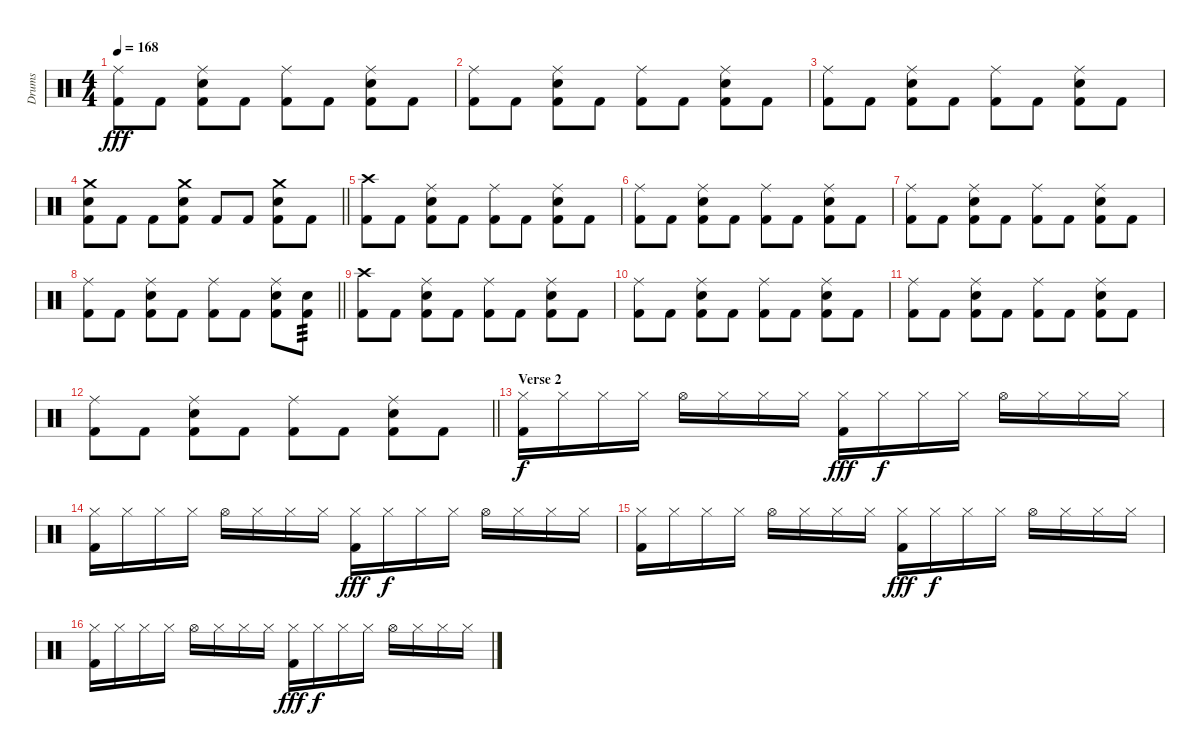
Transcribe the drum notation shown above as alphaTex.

\track ("Drums" "Drums") {instrument percussion}
\staff {score}
\articulation defaults
\ts (4 4)
\tempo 168
\clef neutral
\ks c
("Ride (middle)" "Kick (hit) 2").8{dy fff} "Kick (hit) 2".8 ("Ride (middle)" "Snare (hit) 2" "Kick (hit) 2").8 "Kick (hit) 2".8 ("Ride (middle)" "Kick (hit) 2").8 "Kick (hit) 2".8 ("Ride (middle)" "Snare (hit) 2" "Kick (hit) 2").8 "Kick (hit) 2".8 |
("Ride (middle)" "Kick (hit) 2").8 "Kick (hit) 2".8 ("Ride (middle)" "Snare (hit) 2" "Kick (hit) 2").8 "Kick (hit) 2".8 ("Ride (middle)" "Kick (hit) 2").8 "Kick (hit) 2".8 ("Ride (middle)" "Snare (hit) 2" "Kick (hit) 2").8 "Kick (hit) 2".8 |
("Ride (middle)" "Kick (hit) 2").8 "Kick (hit) 2".8 ("Ride (middle)" "Snare (hit) 2" "Kick (hit) 2").8 "Kick (hit) 2".8 ("Ride (middle)" "Kick (hit) 2").8 "Kick (hit) 2".8 ("Ride (middle)" "Snare (hit) 2" "Kick (hit) 2").8 "Kick (hit) 2".8 |
\barLineRight lightlight
("Crash medium (hit)" "Snare (hit) 2" "Kick (hit) 2").8 "Kick (hit) 2".8 "Kick (hit) 2".8 ("Crash medium (hit)" "Snare (hit) 2" "Kick (hit) 2").8 "Kick (hit) 2".8 "Kick (hit) 2".8 ("Crash medium (hit)" "Snare (hit) 2" "Kick (hit) 2").8 "Kick (hit) 2".8 |
("Crash high (hit)" "Kick (hit) 2").8 "Kick (hit) 2".8 ("Ride (middle)" "Snare (hit) 2" "Kick (hit) 2").8 "Kick (hit) 2".8 ("Ride (middle)" "Kick (hit) 2").8 "Kick (hit) 2".8 ("Ride (middle)" "Snare (hit) 2" "Kick (hit) 2").8 "Kick (hit) 2".8 |
("Ride (middle)" "Kick (hit) 2").8 "Kick (hit) 2".8 ("Ride (middle)" "Snare (hit) 2" "Kick (hit) 2").8 "Kick (hit) 2".8 ("Ride (middle)" "Kick (hit) 2").8 "Kick (hit) 2".8 ("Ride (middle)" "Snare (hit) 2" "Kick (hit) 2").8 "Kick (hit) 2".8 |
("Ride (middle)" "Kick (hit) 2").8 "Kick (hit) 2".8 ("Ride (middle)" "Snare (hit) 2" "Kick (hit) 2").8 "Kick (hit) 2".8 ("Ride (middle)" "Kick (hit) 2").8 "Kick (hit) 2".8 ("Ride (middle)" "Snare (hit) 2" "Kick (hit) 2").8 "Kick (hit) 2".8 |
\barLineRight lightlight
("Ride (middle)" "Kick (hit) 2").8 "Kick (hit) 2".8 ("Ride (middle)" "Snare (hit) 2" "Kick (hit) 2").8 "Kick (hit) 2".8 ("Ride (middle)" "Kick (hit) 2").8 "Kick (hit) 2".8 ("Ride (middle)" "Snare (hit) 2" "Kick (hit) 2").8 ("Snare (hit) 2" "Kick (hit) 2").8{tp 3} |
("Crash high (hit)" "Kick (hit) 2").8 "Kick (hit) 2".8 ("Ride (middle)" "Snare (hit) 2" "Kick (hit) 2").8 "Kick (hit) 2".8 ("Ride (middle)" "Kick (hit) 2").8 "Kick (hit) 2".8 ("Ride (middle)" "Snare (hit) 2" "Kick (hit) 2").8 "Kick (hit) 2".8 |
("Ride (middle)" "Kick (hit) 2").8 "Kick (hit) 2".8 ("Ride (middle)" "Snare (hit) 2" "Kick (hit) 2").8 "Kick (hit) 2".8 ("Ride (middle)" "Kick (hit) 2").8 "Kick (hit) 2".8 ("Ride (middle)" "Snare (hit) 2" "Kick (hit) 2").8 "Kick (hit) 2".8 |
("Ride (middle)" "Kick (hit) 2").8 "Kick (hit) 2".8 ("Ride (middle)" "Snare (hit) 2" "Kick (hit) 2").8 "Kick (hit) 2".8 ("Ride (middle)" "Kick (hit) 2").8 "Kick (hit) 2".8 ("Ride (middle)" "Snare (hit) 2" "Kick (hit) 2").8 "Kick (hit) 2".8 |
\barLineRight lightlight
("Ride (middle)" "Kick (hit) 2").8 "Kick (hit) 2".8 ("Ride (middle)" "Snare (hit) 2" "Kick (hit) 2").8 "Kick (hit) 2".8 ("Ride (middle)" "Kick (hit) 2").8 "Kick (hit) 2".8 ("Ride (middle)" "Snare (hit) 2" "Kick (hit) 2").8 "Kick (hit) 2".8 |
\section ("" "Verse 2")
("Hi-Hat (closed)" "Kick (hit) 2").16{dy f} "Hi-Hat (closed)".16 "Hi-Hat (closed)".16 "Hi-Hat (closed)".16 "Hi-Hat (open)".16 "Hi-Hat (closed)".16 "Hi-Hat (closed)".16 "Hi-Hat (closed)".16 ("Hi-Hat (closed)" "Kick (hit) 2").16{dy fff} "Hi-Hat (closed)".16{dy f} "Hi-Hat (closed)".16 "Hi-Hat (closed)".16 "Hi-Hat (open)".16 "Hi-Hat (closed)".16 "Hi-Hat (closed)".16 "Hi-Hat (closed)".16 |
("Hi-Hat (closed)" "Kick (hit) 2").16 "Hi-Hat (closed)".16 "Hi-Hat (closed)".16 "Hi-Hat (closed)".16 "Hi-Hat (open)".16 "Hi-Hat (closed)".16 "Hi-Hat (closed)".16 "Hi-Hat (closed)".16 ("Hi-Hat (closed)" "Kick (hit) 2").16{dy fff} "Hi-Hat (closed)".16{dy f} "Hi-Hat (closed)".16 "Hi-Hat (closed)".16 "Hi-Hat (open)".16 "Hi-Hat (closed)".16 "Hi-Hat (closed)".16 "Hi-Hat (closed)".16 |
("Hi-Hat (closed)" "Kick (hit) 2").16 "Hi-Hat (closed)".16 "Hi-Hat (closed)".16 "Hi-Hat (closed)".16 "Hi-Hat (open)".16 "Hi-Hat (closed)".16 "Hi-Hat (closed)".16 "Hi-Hat (closed)".16 ("Hi-Hat (closed)" "Kick (hit) 2").16{dy fff} "Hi-Hat (closed)".16{dy f} "Hi-Hat (closed)".16 "Hi-Hat (closed)".16 "Hi-Hat (open)".16 "Hi-Hat (closed)".16 "Hi-Hat (closed)".16 "Hi-Hat (closed)".16 |
("Hi-Hat (closed)" "Kick (hit) 2").16 "Hi-Hat (closed)".16 "Hi-Hat (closed)".16 "Hi-Hat (closed)".16 "Hi-Hat (open)".16 "Hi-Hat (closed)".16 "Hi-Hat (closed)".16 "Hi-Hat (closed)".16 ("Hi-Hat (closed)" "Kick (hit) 2").16{dy fff} "Hi-Hat (closed)".16{dy f} "Hi-Hat (closed)".16 "Hi-Hat (closed)".16 "Hi-Hat (open)".16 "Hi-Hat (closed)".16 "Hi-Hat (closed)".16 "Hi-Hat (closed)".16
